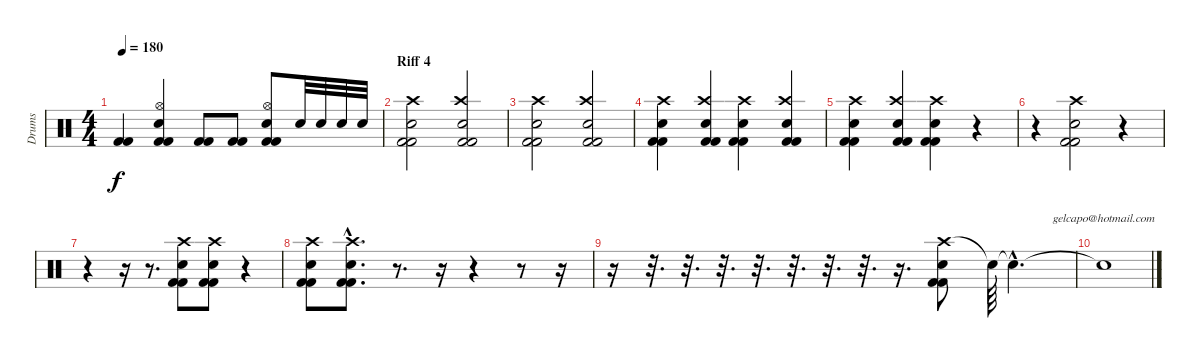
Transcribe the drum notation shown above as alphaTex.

\track ("Drums" "Drums") {instrument percussion}
\staff {score}
\articulation defaults
\chord ("gelcapo@hotmail.com") {firstfret 0}
\ts (4 4)
\tempo 180
\clef neutral
\ks c
("Kick (hit) 2" "Kick (hit) 2").4{dy f} ("Hi-Hat (open)" "Snare (hit) 2" "Kick (hit) 2" "Kick (hit) 2").4 ("Kick (hit) 2" "Kick (hit) 2").8 ("Kick (hit) 2" "Kick (hit) 2").8 ("Hi-Hat (open)" "Snare (hit) 2" "Kick (hit) 2" "Kick (hit) 2").8 "Snare (hit) 2".32 "Snare (hit) 2".32 "Snare (hit) 2".32 "Snare (hit) 2".32 |
\section ("" "Riff 4")
("Crash high (hit)" "Snare (hit) 2" "Kick (hit) 2" "Kick (hit) 2").2 ("Crash high (hit)" "Electric Snare (hit)" "Kick (hit) 2" "Kick (hit) 2").2 |
("Crash high (hit)" "Snare (hit) 2" "Kick (hit) 2" "Kick (hit) 2").2 ("Crash high (hit)" "Electric Snare (hit)" "Kick (hit) 2" "Kick (hit) 2").2 |
("Crash high (hit)" "Snare (hit) 2" "Kick (hit) 2" "Kick (hit) 2").4 ("Crash high (hit)" "Electric Snare (hit)" "Kick (hit) 2" "Kick (hit) 2").4 ("Crash high (hit)" "Snare (hit) 2" "Kick (hit) 2" "Kick (hit) 2").4 ("Crash high (hit)" "Electric Snare (hit)" "Kick (hit) 2" "Kick (hit) 2").4 |
("Crash high (hit)" "Snare (hit) 2" "Kick (hit) 2" "Kick (hit) 2").4 ("Crash high (hit)" "Electric Snare (hit)" "Kick (hit) 2" "Kick (hit) 2").4 ("Crash high (hit)" "Snare (hit) 2" "Kick (hit) 2" "Kick (hit) 2").4 r.4 |
r.4 ("Crash high (hit)" "Snare (hit) 2" "Kick (hit) 2" "Kick (hit) 2").2 r.4 |
r.4 r.16 r.8{d} ("Crash high (hit)" "Snare (hit) 2" "Kick (hit) 2" "Kick (hit) 2").8 ("Crash high (hit)" "Snare (hit) 2" "Kick (hit) 2" "Kick (hit) 2").8 r.4 |
("Crash high (hit)" "Snare (hit) 2" "Kick (hit) 2" "Kick (hit) 2").8 ("Crash high (hit)"{hac} "Snare (hit) 2"{hac} "Kick (hit) 2"{hac} "Kick (hit) 2"{hac}).8{d} r.8{d} r.16 r.4 r.8 r.16 |
r.16 r.32{d} r.32{d} r.32{d} r.32{d} r.32{d} r.32{d} r.32{d} r.16{d} ("Crash high (hit)" "Snare (hit) 2" "Kick (hit) 2" "Kick (hit) 2").8 "Snare (hit)"{t}.64 "Snare (hit)"{hac t}.4{d} |
"Snare (hit)"{t}.1{ch "gelcapo@hotmail.com"}
